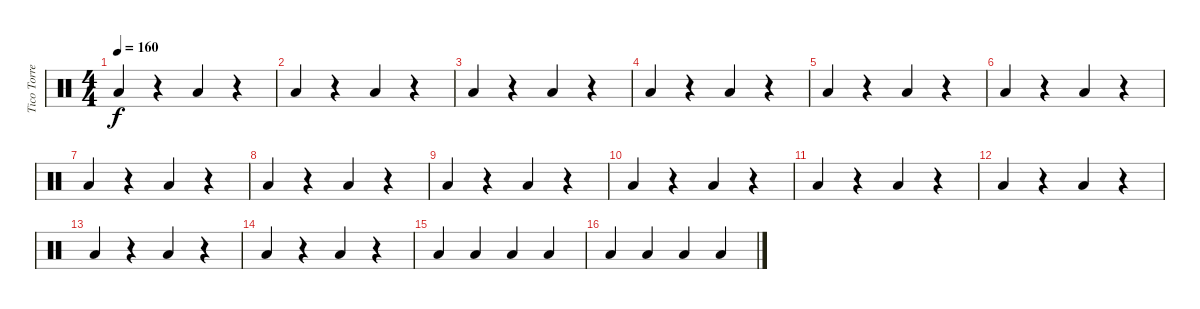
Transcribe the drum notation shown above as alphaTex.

\track ("Tico Torres" "Tico Torre") {instrument percussion}
\staff {score}
\articulation defaults
\ts (4 4)
\tempo 160
\clef neutral
\ks c "Low Floor Tom (hit)".4{dy f}
r.4 "Low Floor Tom (hit)".4 r.4 |
"Low Floor Tom (hit)".4 r.4 "Low Floor Tom (hit)".4 r.4 |
"Low Floor Tom (hit)".4 r.4 "Low Floor Tom (hit)".4 r.4 |
"Low Floor Tom (hit)".4 r.4 "Low Floor Tom (hit)".4 r.4 |
"Low Floor Tom (hit)".4 r.4 "Low Floor Tom (hit)".4 r.4 |
"Low Floor Tom (hit)".4 r.4 "Low Floor Tom (hit)".4 r.4 |
"Low Floor Tom (hit)".4 r.4 "Low Floor Tom (hit)".4 r.4 |
"Low Floor Tom (hit)".4 r.4 "Low Floor Tom (hit)".4 r.4 |
"Low Floor Tom (hit)".4 r.4 "Low Floor Tom (hit)".4 r.4 |
"Low Floor Tom (hit)".4 r.4 "Low Floor Tom (hit)".4 r.4 |
"Low Floor Tom (hit)".4 r.4 "Low Floor Tom (hit)".4 r.4 |
"Low Floor Tom (hit)".4 r.4 "Low Floor Tom (hit)".4 r.4 |
"Low Floor Tom (hit)".4 r.4 "Low Floor Tom (hit)".4 r.4 |
"Low Floor Tom (hit)".4 r.4 "Low Floor Tom (hit)".4 r.4 |
"Low Floor Tom (hit)".4 "Low Floor Tom (hit)".4 "Low Floor Tom (hit)".4 "Low Floor Tom (hit)".4 |
"Low Floor Tom (hit)".4 "Low Floor Tom (hit)".4 "Low Floor Tom (hit)".4 "Low Floor Tom (hit)".4
